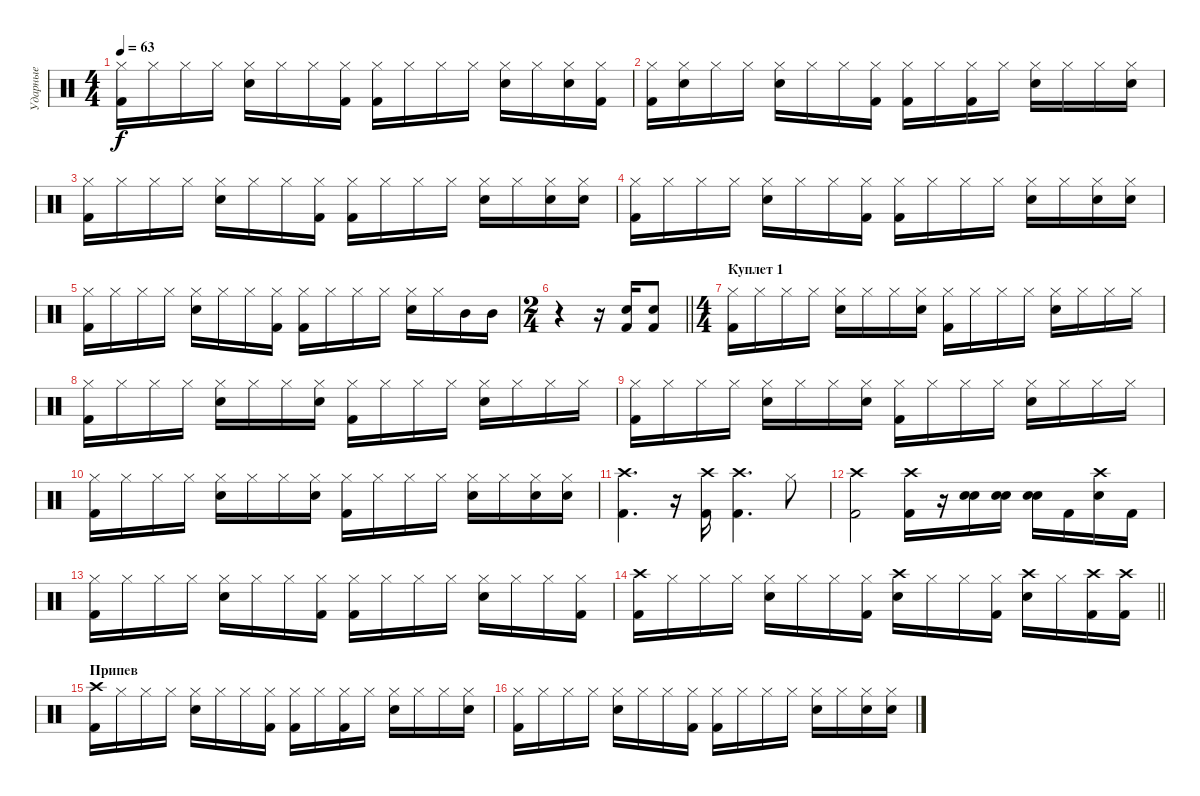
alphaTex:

\track ("Ударные" "Ударные") {instrument percussion}
\staff {score}
\articulation defaults
\ts (4 4)
\tempo 63
\clef neutral
\ks c
("Hi-Hat (closed)" "Kick (hit) 2").16{dy f} "Hi-Hat (closed)".16 "Hi-Hat (closed)".16 "Hi-Hat (closed)".16 ("Hi-Hat (closed)" "Electric Snare (hit)").16 "Hi-Hat (closed)".16 "Hi-Hat (closed)".16 ("Hi-Hat (closed)" "Kick (hit) 2").16 ("Hi-Hat (closed)" "Kick (hit) 2").16 "Hi-Hat (closed)".16 "Hi-Hat (closed)".16 "Hi-Hat (closed)".16 ("Hi-Hat (closed)" "Electric Snare (hit)").16 "Hi-Hat (closed)".16 ("Hi-Hat (closed)" "Electric Snare (hit)").16 ("Hi-Hat (closed)" "Kick (hit) 2").16 |
("Hi-Hat (closed)" "Kick (hit) 2").16 ("Hi-Hat (closed)" "Electric Snare (hit)").16 "Hi-Hat (closed)".16 "Hi-Hat (closed)".16 ("Hi-Hat (closed)" "Electric Snare (hit)").16 "Hi-Hat (closed)".16 "Hi-Hat (closed)".16 ("Hi-Hat (closed)" "Kick (hit) 2").16 ("Hi-Hat (closed)" "Kick (hit) 2").16 "Hi-Hat (closed)".16 ("Hi-Hat (closed)" "Kick (hit) 2").16 "Hi-Hat (closed)".16 ("Hi-Hat (closed)" "Electric Snare (hit)").16 "Hi-Hat (closed)".16 "Hi-Hat (closed)".16 ("Hi-Hat (closed)" "Electric Snare (hit)").16 |
("Hi-Hat (closed)" "Kick (hit) 2").16 "Hi-Hat (closed)".16 "Hi-Hat (closed)".16 "Hi-Hat (closed)".16 ("Hi-Hat (closed)" "Electric Snare (hit)").16 "Hi-Hat (closed)".16 "Hi-Hat (closed)".16 ("Hi-Hat (closed)" "Kick (hit) 2").16 ("Hi-Hat (closed)" "Kick (hit) 2").16 "Hi-Hat (closed)".16 "Hi-Hat (closed)".16 "Hi-Hat (closed)".16 ("Hi-Hat (closed)" "Electric Snare (hit)").16 "Hi-Hat (closed)".16 ("Hi-Hat (closed)" "Electric Snare (hit)").16 ("Hi-Hat (closed)" "Electric Snare (hit)").16 |
("Hi-Hat (closed)" "Kick (hit) 2").16 "Hi-Hat (closed)".16 "Hi-Hat (closed)".16 "Hi-Hat (closed)".16 ("Hi-Hat (closed)" "Electric Snare (hit)").16 "Hi-Hat (closed)".16 "Hi-Hat (closed)".16 ("Hi-Hat (closed)" "Kick (hit) 2").16 ("Hi-Hat (closed)" "Kick (hit) 2").16 "Hi-Hat (closed)".16 "Hi-Hat (closed)".16 "Hi-Hat (closed)".16 ("Hi-Hat (closed)" "Electric Snare (hit)").16 "Hi-Hat (closed)".16 ("Hi-Hat (closed)" "Electric Snare (hit)").16 ("Hi-Hat (closed)" "Electric Snare (hit)").16 |
("Hi-Hat (closed)" "Kick (hit) 2").16 "Hi-Hat (closed)".16 "Hi-Hat (closed)".16 "Hi-Hat (closed)".16 ("Hi-Hat (closed)" "Electric Snare (hit)").16 "Hi-Hat (closed)".16 "Hi-Hat (closed)".16 ("Hi-Hat (closed)" "Kick (hit) 2").16 ("Hi-Hat (closed)" "Kick (hit) 2").16 "Hi-Hat (closed)".16 "Hi-Hat (closed)".16 "Hi-Hat (closed)".16 ("Hi-Hat (closed)" "Electric Snare (hit)").16 "Hi-Hat (closed)".16 "Mid Tom (hit)".16 "Mid Tom (hit)".16 |
\ts (2 4)
\barLineRight lightlight
r.4 r.16 ("Electric Snare (hit)" "Kick (hit) 2").16 ("Electric Snare (hit)" "Kick (hit) 2").8 |
\ts (4 4)
\section ("" "Куплет 1")
("Hi-Hat (closed)" "Kick (hit) 2").16 "Hi-Hat (closed)".16 "Hi-Hat (closed)".16 "Hi-Hat (closed)".16 ("Hi-Hat (closed)" "Electric Snare (hit)").16 "Hi-Hat (closed)".16 "Hi-Hat (closed)".16 ("Hi-Hat (closed)" "Electric Snare (hit)").16 ("Hi-Hat (closed)" "Kick (hit) 2").16 "Hi-Hat (closed)".16 "Hi-Hat (closed)".16 "Hi-Hat (closed)".16 ("Hi-Hat (closed)" "Electric Snare (hit)").16 "Hi-Hat (closed)".16 "Hi-Hat (closed)".16 "Hi-Hat (closed)".16 |
("Hi-Hat (closed)" "Kick (hit) 2").16 "Hi-Hat (closed)".16 "Hi-Hat (closed)".16 "Hi-Hat (closed)".16 ("Hi-Hat (closed)" "Electric Snare (hit)").16 "Hi-Hat (closed)".16 "Hi-Hat (closed)".16 ("Hi-Hat (closed)" "Electric Snare (hit)").16 ("Hi-Hat (closed)" "Kick (hit) 2").16 "Hi-Hat (closed)".16 "Hi-Hat (closed)".16 "Hi-Hat (closed)".16 ("Hi-Hat (closed)" "Electric Snare (hit)").16 "Hi-Hat (closed)".16 "Hi-Hat (closed)".16 "Hi-Hat (closed)".16 |
("Hi-Hat (closed)" "Kick (hit) 2").16 "Hi-Hat (closed)".16 "Hi-Hat (closed)".16 "Hi-Hat (closed)".16 ("Hi-Hat (closed)" "Electric Snare (hit)").16 "Hi-Hat (closed)".16 "Hi-Hat (closed)".16 ("Hi-Hat (closed)" "Electric Snare (hit)").16 ("Hi-Hat (closed)" "Kick (hit) 2").16 "Hi-Hat (closed)".16 "Hi-Hat (closed)".16 "Hi-Hat (closed)".16 ("Hi-Hat (closed)" "Electric Snare (hit)").16 "Hi-Hat (closed)".16 "Hi-Hat (closed)".16 "Hi-Hat (closed)".16 |
("Hi-Hat (closed)" "Kick (hit) 2").16 "Hi-Hat (closed)".16 "Hi-Hat (closed)".16 "Hi-Hat (closed)".16 ("Hi-Hat (closed)" "Electric Snare (hit)").16 "Hi-Hat (closed)".16 "Hi-Hat (closed)".16 ("Hi-Hat (closed)" "Electric Snare (hit)").16 ("Hi-Hat (closed)" "Kick (hit) 2").16 "Hi-Hat (closed)".16 "Hi-Hat (closed)".16 "Hi-Hat (closed)".16 ("Hi-Hat (closed)" "Electric Snare (hit)").16 "Hi-Hat (closed)".16 ("Hi-Hat (closed)" "Electric Snare (hit)").16 ("Hi-Hat (closed)" "Electric Snare (hit)").16 |
("Crash high (hit)" "Kick (hit) 2").4{d} r.16 ("Crash high (hit)" "Kick (hit) 2").16 ("Crash high (hit)" "Kick (hit) 2").4{d} "Hi-Hat (closed)".8 |
("Crash high (hit)" "Kick (hit) 2").2 ("Crash high (hit)" "Kick (hit) 2").16 r.16{volume 6} ("Electric Snare (hit)" "Electric Snare (hit)").16{volume 14} ("Electric Snare (hit)" "Electric Snare (hit)").16 ("Electric Snare (hit)" "Electric Snare (hit)").16 "Kick (hit) 2".16 ("Crash high (hit)" "Electric Snare (hit)").16 "Kick (hit) 2".16 |
("Hi-Hat (closed)" "Kick (hit) 2").16{volume 16} "Hi-Hat (closed)".16 "Hi-Hat (closed)".16 "Hi-Hat (closed)".16 ("Hi-Hat (closed)" "Electric Snare (hit)").16 "Hi-Hat (closed)".16 "Hi-Hat (closed)".16 ("Hi-Hat (closed)" "Kick (hit) 2").16 ("Hi-Hat (closed)" "Kick (hit) 2").16 "Hi-Hat (closed)".16 "Hi-Hat (closed)".16 "Hi-Hat (closed)".16 ("Hi-Hat (closed)" "Electric Snare (hit)").16 "Hi-Hat (closed)".16 "Hi-Hat (closed)".16 ("Hi-Hat (closed)" "Kick (hit) 2").16 |
\barLineRight lightlight
("Crash high (hit)" "Kick (hit) 2").16 "Hi-Hat (closed)".16 "Hi-Hat (closed)".16 "Hi-Hat (closed)".16 ("Hi-Hat (closed)" "Electric Snare (hit)").16 "Hi-Hat (closed)".16 "Hi-Hat (closed)".16 ("Hi-Hat (closed)" "Kick (hit) 2").16 ("Crash high (hit)" "Electric Snare (hit)").16 "Hi-Hat (closed)".16 "Hi-Hat (closed)".16 ("Hi-Hat (closed)" "Kick (hit) 2").16 ("Crash high (hit)" "Electric Snare (hit)").16 "Hi-Hat (closed)".16 ("Crash high (hit)" "Kick (hit) 2").16 ("Crash high (hit)" "Kick (hit) 2").16 |
\section ("" "Припев")
("Crash high (hit)" "Kick (hit) 2").16 "Hi-Hat (closed)".16 "Hi-Hat (closed)".16 "Hi-Hat (closed)".16 ("Hi-Hat (closed)" "Electric Snare (hit)").16 "Hi-Hat (closed)".16 "Hi-Hat (closed)".16 ("Hi-Hat (closed)" "Kick (hit) 2").16 ("Hi-Hat (closed)" "Kick (hit) 2").16 "Hi-Hat (closed)".16 ("Hi-Hat (closed)" "Kick (hit) 2").16 "Hi-Hat (closed)".16 ("Hi-Hat (closed)" "Electric Snare (hit)").16 "Hi-Hat (closed)".16 "Hi-Hat (closed)".16 ("Hi-Hat (closed)" "Electric Snare (hit)").16 |
("Hi-Hat (closed)" "Kick (hit) 2").16 "Hi-Hat (closed)".16 "Hi-Hat (closed)".16 "Hi-Hat (closed)".16 ("Hi-Hat (closed)" "Electric Snare (hit)").16 "Hi-Hat (closed)".16 "Hi-Hat (closed)".16 ("Hi-Hat (closed)" "Kick (hit) 2").16 ("Hi-Hat (closed)" "Kick (hit) 2").16 "Hi-Hat (closed)".16 "Hi-Hat (closed)".16 "Hi-Hat (closed)".16 ("Hi-Hat (closed)" "Electric Snare (hit)").16 "Hi-Hat (closed)".16 ("Hi-Hat (closed)" "Electric Snare (hit)").16 ("Hi-Hat (closed)" "Electric Snare (hit)").16
